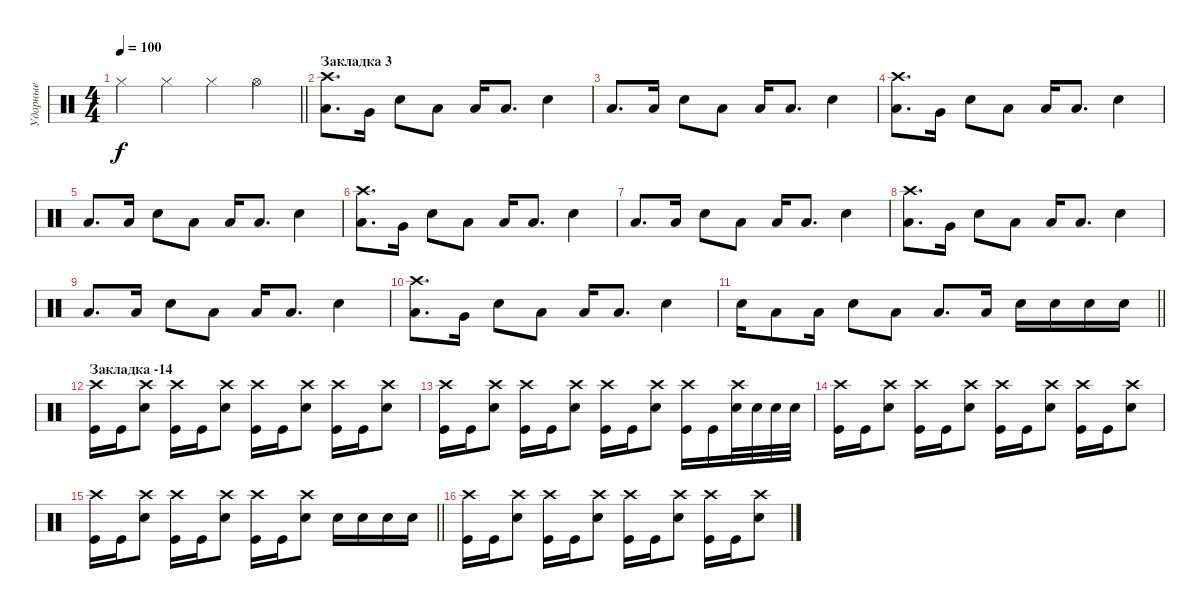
\track ("Ударные" "Ударные") {instrument percussion}
\staff {score}
\articulation defaults
\ts (4 4)
\tempo 100
\clef neutral
\barLineRight lightlight
\ks c "Hi-Hat (closed)".4{dy f} "Hi-Hat (closed)".4 "Hi-Hat (closed)".4 "Hi-Hat (open)".4
|
\section ("" "Закладка 3")
("Low Floor Tom (hit)" "Crash high (hit)").8{d} "Very Low Tom (hit)".16 "Snare (hit) 2".8 "Low Floor Tom (hit)".8 "Low Floor Tom (hit)".16 "Low Floor Tom (hit)".8{d} "Snare (hit) 2".4 |
"Low Floor Tom (hit)".8{d} "Low Floor Tom (hit)".16 "Snare (hit) 2".8 "Low Floor Tom (hit)".8 "Low Floor Tom (hit)".16 "Low Floor Tom (hit)".8{d} "Snare (hit) 2".4 |
("Low Floor Tom (hit)" "Crash high (hit)").8{d} "Very Low Tom (hit)".16 "Snare (hit) 2".8 "Low Floor Tom (hit)".8 "Low Floor Tom (hit)".16 "Low Floor Tom (hit)".8{d} "Snare (hit) 2".4 |
"Low Floor Tom (hit)".8{d} "Low Floor Tom (hit)".16 "Snare (hit) 2".8 "Low Floor Tom (hit)".8 "Low Floor Tom (hit)".16 "Low Floor Tom (hit)".8{d} "Snare (hit) 2".4 |
("Low Floor Tom (hit)" "Crash high (hit)").8{d} "Very Low Tom (hit)".16 "Snare (hit) 2".8 "Low Floor Tom (hit)".8 "Low Floor Tom (hit)".16 "Low Floor Tom (hit)".8{d} "Snare (hit) 2".4 |
"Low Floor Tom (hit)".8{d} "Low Floor Tom (hit)".16 "Snare (hit) 2".8 "Low Floor Tom (hit)".8 "Low Floor Tom (hit)".16 "Low Floor Tom (hit)".8{d} "Snare (hit) 2".4 |
("Low Floor Tom (hit)" "Crash high (hit)").8{d} "Very Low Tom (hit)".16 "Snare (hit) 2".8 "Low Floor Tom (hit)".8 "Low Floor Tom (hit)".16 "Low Floor Tom (hit)".8{d} "Snare (hit) 2".4 |
"Low Floor Tom (hit)".8{d} "Low Floor Tom (hit)".16 "Snare (hit) 2".8 "Low Floor Tom (hit)".8 "Low Floor Tom (hit)".16 "Low Floor Tom (hit)".8{d} "Snare (hit) 2".4 |
("Low Floor Tom (hit)" "Crash high (hit)").8{d} "Very Low Tom (hit)".16 "Snare (hit) 2".8 "Low Floor Tom (hit)".8 "Low Floor Tom (hit)".16 "Low Floor Tom (hit)".8{d} "Snare (hit) 2".4 |
\barLineRight lightlight "Snare (hit) 2".16 "Low Floor Tom (hit)".8 "Low Floor Tom (hit)".16 "Snare (hit) 2".8 "Low Floor Tom (hit)".8 "Low Floor Tom (hit)".8{d} "Low Floor Tom (hit)".16 "Snare (hit) 2".16 "Snare (hit) 2".16 "Snare (hit) 2".16 "Snare (hit) 2".16
|
\section ("" "Закладка -14")
("Crash high (hit)" "Kick (hit)").16 "Kick (hit)".16 ("Snare (hit) 2" "Crash high (hit)").8 ("Kick (hit)" "Crash high (hit)").16 "Kick (hit)".16 ("Crash high (hit)" "Snare (hit) 2").8 ("Kick (hit)" "Crash high (hit)").16 "Kick (hit)".16 ("Crash high (hit)" "Snare (hit) 2").8 ("Kick (hit)" "Crash high (hit)").16 "Kick (hit)".16 ("Crash high (hit)" "Snare (hit) 2").8 |
("Kick (hit)" "Crash high (hit)").16 "Kick (hit)".16 ("Crash high (hit)" "Snare (hit) 2").8 ("Kick (hit)" "Crash high (hit)").16 "Kick (hit)".16 ("Crash high (hit)" "Snare (hit) 2").8 ("Kick (hit)" "Crash high (hit)").16 "Kick (hit)".16 ("Crash high (hit)" "Snare (hit) 2").8 ("Kick (hit)" "Crash high (hit)").16 "Kick (hit)".16 ("Snare (hit) 2" "Crash high (hit)").32 "Snare (hit) 2".32 "Snare (hit) 2".32 "Snare (hit) 2".32 |
("Kick (hit)" "Crash high (hit)").16 "Kick (hit)".16 ("Crash high (hit)" "Snare (hit) 2").8 ("Kick (hit)" "Crash high (hit)").16 "Kick (hit)".16 ("Crash high (hit)" "Snare (hit) 2").8 ("Kick (hit)" "Crash high (hit)").16 "Kick (hit)".16 ("Crash high (hit)" "Snare (hit) 2").8 ("Kick (hit)" "Crash high (hit)").16 "Kick (hit)".16 ("Crash high (hit)" "Snare (hit) 2").8 |
\barLineRight lightlight
("Kick (hit)" "Crash high (hit)").16 "Kick (hit)".16 ("Crash high (hit)" "Snare (hit) 2").8 ("Kick (hit)" "Crash high (hit)").16 "Kick (hit)".16 ("Crash high (hit)" "Snare (hit) 2").8 ("Kick (hit)" "Crash high (hit)").16 "Kick (hit)".16 ("Crash high (hit)" "Snare (hit) 2").8 "Snare (hit) 2".16 "Snare (hit) 2".16 "Snare (hit) 2".16 "Snare (hit) 2".16 |
("Crash high (hit)" "Kick (hit)").16 "Kick (hit)".16 ("Snare (hit) 2" "Crash high (hit)").8 ("Kick (hit)" "Crash high (hit)").16 "Kick (hit)".16 ("Crash high (hit)" "Snare (hit) 2").8 ("Kick (hit)" "Crash high (hit)").16 "Kick (hit)".16 ("Crash high (hit)" "Snare (hit) 2").8 ("Kick (hit)" "Crash high (hit)").16 "Kick (hit)".16 ("Crash high (hit)" "Snare (hit) 2").8
